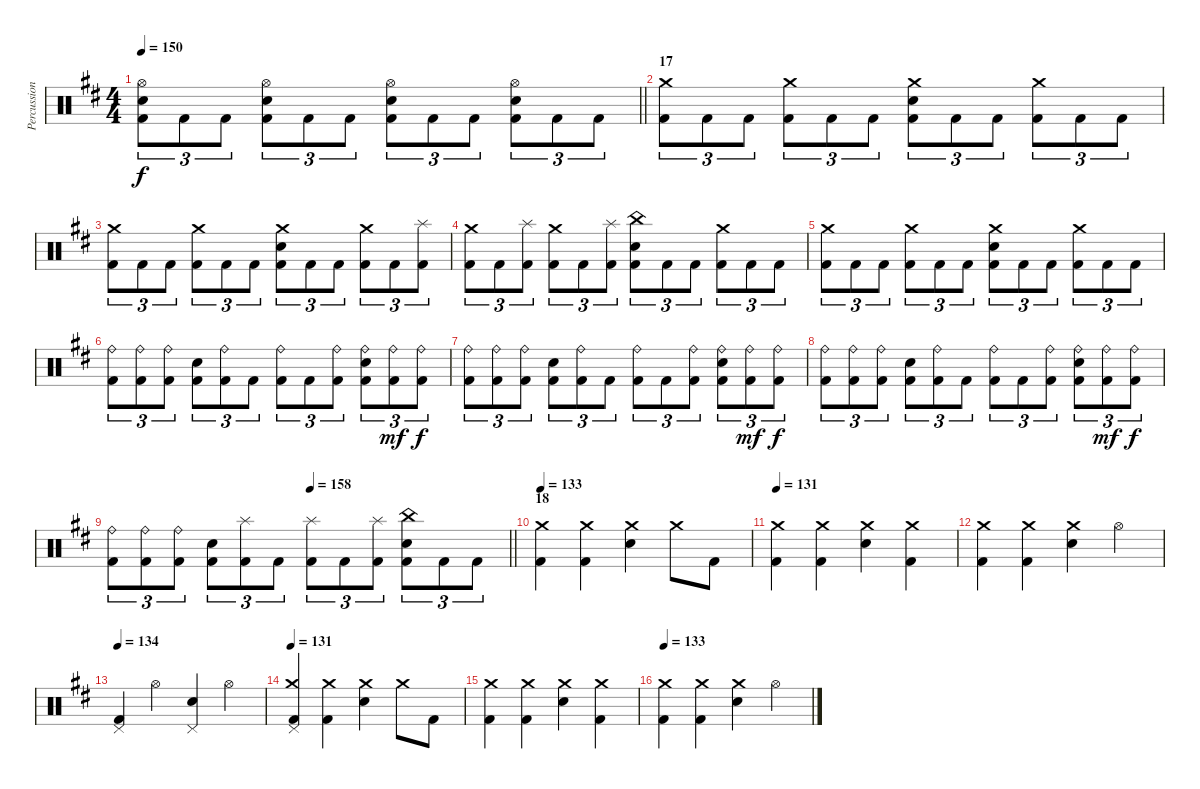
\track ("Percussion" "Percussion") {instrument percussion}
\staff {score}
\articulation defaults
\ts (4 4)
\tempo 150
\clef neutral
\barLineRight lightlight
\ks bminor
("Hi-Hat (open)" "Snare (hit) 2" "Kick (hit) 2").8{tu (3 2) dy f} "Kick (hit) 2".8{tu (3 2)} "Kick (hit) 2".8{tu (3 2)} ("Hi-Hat (open)" "Snare (hit) 2" "Kick (hit) 2").8{tu (3 2)} "Kick (hit) 2".8{tu (3 2)} "Kick (hit) 2".8{tu (3 2)} ("Hi-Hat (open)" "Snare (hit) 2" "Kick (hit) 2").8{tu (3 2)} "Kick (hit) 2".8{tu (3 2)} "Kick (hit) 2".8{tu (3 2)} ("Hi-Hat (open)" "Snare (hit) 2" "Kick (hit) 2").8{tu (3 2)} "Kick (hit) 2".8{tu (3 2)} "Kick (hit) 2".8{tu (3 2)} |
\section ("" "17")
("Crash medium (hit)" "Kick (hit) 2").8{tu (3 2)} "Kick (hit) 2".8{tu (3 2)} "Kick (hit) 2".8{tu (3 2)} ("Crash medium (hit)" "Kick (hit) 2").8{tu (3 2)} "Kick (hit) 2".8{tu (3 2)} "Kick (hit) 2".8{tu (3 2)} ("Crash medium (hit)" "Snare (hit) 2" "Kick (hit) 2").8{tu (3 2)} "Kick (hit) 2".8{tu (3 2)} "Kick (hit) 2".8{tu (3 2)} ("Crash medium (hit)" "Kick (hit) 2").8{tu (3 2)} "Kick (hit) 2".8{tu (3 2)} "Kick (hit) 2".8{tu (3 2)} |
("Crash medium (hit)" "Kick (hit) 2").8{tu (3 2)} "Kick (hit) 2".8{tu (3 2)} "Kick (hit) 2".8{tu (3 2)} ("Crash medium (hit)" "Kick (hit) 2").8{tu (3 2)} "Kick (hit) 2".8{tu (3 2)} "Kick (hit) 2".8{tu (3 2)} ("Crash medium (hit)" "Snare (hit) 2" "Kick (hit) 2").8{tu (3 2)} "Kick (hit) 2".8{tu (3 2)} "Kick (hit) 2".8{tu (3 2)} ("Crash medium (hit)" "Kick (hit) 2").8{tu (3 2)} "Kick (hit) 2".8{tu (3 2)} ("Splash (hit)" "Kick (hit) 2").8{tu (3 2)} |
("Crash medium (hit)" "Kick (hit) 2").8{tu (3 2)} "Kick (hit) 2".8{tu (3 2)} ("Splash (hit)" "Kick (hit) 2").8{tu (3 2)} ("Crash medium (hit)" "Kick (hit) 2").8{tu (3 2)} "Kick (hit) 2".8{tu (3 2)} ("Splash (hit)" "Kick (hit) 2").8{tu (3 2)} ("China (hit)" "Snare (hit) 2" "Kick (hit) 2").8{tu (3 2)} "Kick (hit) 2".8{tu (3 2)} "Kick (hit) 2".8{tu (3 2)} ("Crash medium (hit)" "Kick (hit) 2").8{tu (3 2)} "Kick (hit) 2".8{tu (3 2)} "Kick (hit) 2".8{tu (3 2)} |
("Crash medium (hit)" "Kick (hit) 2").8{tu (3 2)} "Kick (hit) 2".8{tu (3 2)} "Kick (hit) 2".8{tu (3 2)} ("Crash medium (hit)" "Kick (hit) 2").8{tu (3 2)} "Kick (hit) 2".8{tu (3 2)} "Kick (hit) 2".8{tu (3 2)} ("Crash medium (hit)" "Snare (hit) 2" "Kick (hit) 2").8{tu (3 2)} "Kick (hit) 2".8{tu (3 2)} "Kick (hit) 2".8{tu (3 2)} ("Crash medium (hit)" "Kick (hit) 2").8{tu (3 2)} "Kick (hit) 2".8{tu (3 2)} "Kick (hit) 2".8{tu (3 2)} |
("Ride (bell)" "Kick (hit) 2").8{tu (3 2)} ("Ride (bell)" "Kick (hit) 2").8{tu (3 2)} ("Ride (bell)" "Kick (hit) 2").8{tu (3 2)} ("Snare (hit) 2" "Kick (hit) 2").8{tu (3 2)} ("Ride (bell)" "Kick (hit) 2").8{tu (3 2)} "Kick (hit) 2".8{tu (3 2)} ("Ride (bell)" "Kick (hit) 2").8{tu (3 2)} "Kick (hit) 2".8{tu (3 2)} ("Ride (bell)" "Kick (hit) 2").8{tu (3 2)} ("Ride (bell)" "Snare (hit) 2" "Kick (hit) 2").8{tu (3 2)} ("Ride (bell)" "Kick (hit) 2").8{tu (3 2) dy mf} ("Ride (bell)" "Kick (hit) 2").8{tu (3 2) dy f} |
("Ride (bell)" "Kick (hit) 2").8{tu (3 2)} ("Ride (bell)" "Kick (hit) 2").8{tu (3 2)} ("Ride (bell)" "Kick (hit) 2").8{tu (3 2)} ("Snare (hit) 2" "Kick (hit) 2").8{tu (3 2)} ("Ride (bell)" "Kick (hit) 2").8{tu (3 2)} "Kick (hit) 2".8{tu (3 2)} ("Ride (bell)" "Kick (hit) 2").8{tu (3 2)} "Kick (hit) 2".8{tu (3 2)} ("Ride (bell)" "Kick (hit) 2").8{tu (3 2)} ("Ride (bell)" "Snare (hit) 2" "Kick (hit) 2").8{tu (3 2)} ("Ride (bell)" "Kick (hit) 2").8{tu (3 2) dy mf} ("Ride (bell)" "Kick (hit) 2").8{tu (3 2) dy f} |
("Ride (bell)" "Kick (hit) 2").8{tu (3 2)} ("Ride (bell)" "Kick (hit) 2").8{tu (3 2)} ("Ride (bell)" "Kick (hit) 2").8{tu (3 2)} ("Snare (hit) 2" "Kick (hit) 2").8{tu (3 2)} ("Ride (bell)" "Kick (hit) 2").8{tu (3 2)} "Kick (hit) 2".8{tu (3 2)} ("Ride (bell)" "Kick (hit) 2").8{tu (3 2)} "Kick (hit) 2".8{tu (3 2)} ("Ride (bell)" "Kick (hit) 2").8{tu (3 2)} ("Ride (bell)" "Snare (hit) 2" "Kick (hit) 2").8{tu (3 2)} ("Ride (bell)" "Kick (hit) 2").8{tu (3 2) dy mf} ("Ride (bell)" "Kick (hit) 2").8{tu (3 2) dy f} |
\tempo (158 0.5)
\barLineRight lightlight
("Ride (bell)" "Kick (hit) 2").8{tu (3 2)} ("Ride (bell)" "Kick (hit) 2").8{tu (3 2)} ("Ride (bell)" "Kick (hit) 2").8{tu (3 2)} ("Snare (hit) 2" "Kick (hit) 2").8{tu (3 2)} ("Splash (hit)" "Kick (hit) 2").8{tu (3 2)} "Kick (hit) 2".8{tu (3 2)} ("Splash (hit)" "Kick (hit) 2").8{tu (3 2)} "Kick (hit) 2".8{tu (3 2)} ("Splash (hit)" "Kick (hit) 2").8{tu (3 2)} ("China (hit)" "Snare (hit) 2" "Kick (hit) 2").8{tu (3 2)} "Kick (hit) 2".8{tu (3 2)} "Kick (hit) 2".8{tu (3 2)} |
\section ("" "18")
\tempo 133
("Crash medium (hit)" "Kick (hit) 2").4 ("Crash medium (hit)" "Kick (hit) 2").4 ("Crash medium (hit)" "Snare (hit) 2").4 "Crash medium (hit)".8 "Kick (hit) 2".8 |
\tempo 131
("Crash medium (hit)" "Kick (hit) 2").4 ("Crash medium (hit)" "Kick (hit) 2").4 ("Crash medium (hit)" "Snare (hit) 2").4 ("Crash medium (hit)" "Kick (hit) 2").4 |
("Crash medium (hit)" "Kick (hit) 2").4 ("Crash medium (hit)" "Kick (hit) 2").4 ("Crash medium (hit)" "Snare (hit) 2").4 "Hi-Hat (open)".4 |
\tempo 134
("Pedal Hi-Hat (hit)" "Kick (hit) 2").4 "Hi-Hat (open)".4 ("Pedal Hi-Hat (hit)" "Snare (hit) 2").4 "Hi-Hat (open)".4 |
\tempo 131
("Crash medium (hit)" "Pedal Hi-Hat (hit)" "Kick (hit) 2").4 ("Crash medium (hit)" "Kick (hit) 2").4 ("Crash medium (hit)" "Snare (hit) 2").4 "Crash medium (hit)".8 "Kick (hit) 2".8 |
("Crash medium (hit)" "Kick (hit) 2").4 ("Crash medium (hit)" "Kick (hit) 2").4 ("Crash medium (hit)" "Snare (hit) 2").4 ("Crash medium (hit)" "Kick (hit) 2").4 |
\tempo 133
("Crash medium (hit)" "Kick (hit) 2").4 ("Crash medium (hit)" "Kick (hit) 2").4 ("Crash medium (hit)" "Snare (hit) 2").4 "Hi-Hat (open)".4
